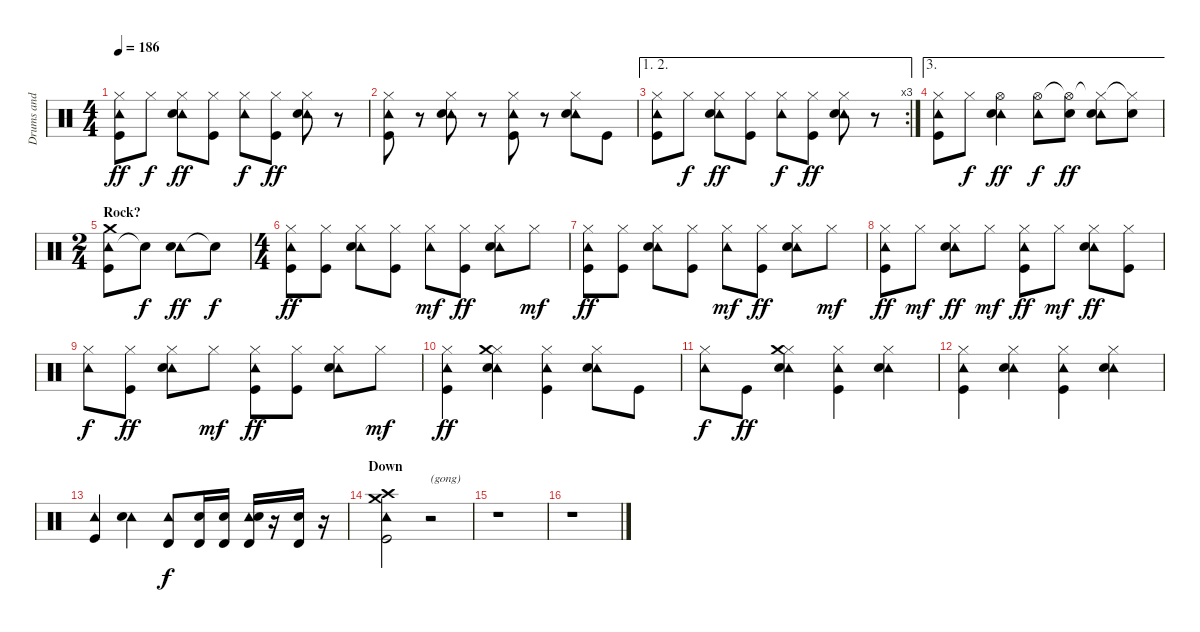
\track ("Drums and Percs" "Drums and ") {instrument percussion}
\staff {score}
\articulation defaults
\ts (4 4)
\tempo 186
\clef neutral
\ks c
("Hi-Hat (closed)" "Tambourine (hit)" "Kick (hit)").8{dy ff} "Hi-Hat (closed)".8{dy f} ("Hi-Hat (closed)" "Tambourine (hit)" "Electric Snare (hit)").8{dy ff} ("Hi-Hat (closed)" "Kick (hit)").8 ("Hi-Hat (closed)" "Tambourine (hit)").8{dy f} ("Hi-Hat (closed)" "Kick (hit)").8{dy ff} ("Hi-Hat (closed)" "Tambourine (hit)" "Electric Snare (hit)").8 r.8 |
("Hi-Hat (closed)" "Tambourine (hit)" "Kick (hit)").8 r.8 ("Hi-Hat (closed)" "Tambourine (hit)" "Electric Snare (hit)").8 r.8 ("Hi-Hat (closed)" "Tambourine (hit)" "Kick (hit)").8 r.8 ("Hi-Hat (closed)" "Tambourine (hit)" "Electric Snare (hit)").8 "Kick (hit)".8 |
\ae (1 2)
\rc 3
("Hi-Hat (closed)" "Tambourine (hit)" "Kick (hit)").8 "Hi-Hat (closed)".8{dy f} ("Hi-Hat (closed)" "Tambourine (hit)" "Electric Snare (hit)").8{dy ff} ("Hi-Hat (closed)" "Kick (hit)").8 ("Hi-Hat (closed)" "Tambourine (hit)").8{dy f} ("Hi-Hat (closed)" "Kick (hit)").8{dy ff} ("Hi-Hat (closed)" "Tambourine (hit)" "Electric Snare (hit)").8 r.8 |
\ae 3
("Hi-Hat (closed)" "Tambourine (hit)" "Kick (hit)").8 "Hi-Hat (closed)".8{dy f} ("Hi-Hat (open)" "Tambourine (hit)" "Electric Snare (hit)").4{dy ff} ("Hi-Hat (open)" "Tambourine (hit)").8{dy f} ("Hi-Hat (open)"{t} "Electric Snare (hit)").8{dy ff} ("Hi-Hat (closed)"{t} "Tambourine (hit)" "Electric Snare (hit)").8 ("Hi-Hat (closed)"{t} "Electric Snare (hit)").8 |
\ts (2 4)
\section ("" "Rock?")
("Tambourine (hit)" "Crash medium (hit)" "Kick (hit)").8 "Snare (hit)"{t}.8{dy f} ("Tambourine (hit)" "Electric Snare (hit)").8{dy ff} "Snare (hit)"{t}.8{dy f} |
\ts (4 4)
("Hi-Hat (closed)" "Tambourine (hit)" "Kick (hit)").8{dy ff} ("Hi-Hat (closed)" "Kick (hit)").8 ("Hi-Hat (closed)" "Tambourine (hit)" "Electric Snare (hit)").8 ("Hi-Hat (closed)" "Kick (hit)").8 ("Hi-Hat (closed)" "Tambourine (hit)").8{dy mf} ("Hi-Hat (closed)" "Kick (hit)").8{dy ff} ("Hi-Hat (closed)" "Tambourine (hit)" "Electric Snare (hit)").8 "Hi-Hat (closed)".8{dy mf} |
("Hi-Hat (closed)" "Tambourine (hit)" "Kick (hit)").8{dy ff} ("Hi-Hat (closed)" "Kick (hit)").8 ("Hi-Hat (closed)" "Tambourine (hit)" "Electric Snare (hit)").8 ("Hi-Hat (closed)" "Kick (hit)").8 ("Hi-Hat (closed)" "Tambourine (hit)").8{dy mf} ("Hi-Hat (closed)" "Kick (hit)").8{dy ff} ("Hi-Hat (closed)" "Tambourine (hit)" "Electric Snare (hit)").8 "Hi-Hat (closed)".8{dy mf} |
("Hi-Hat (closed)" "Tambourine (hit)" "Kick (hit)").8{dy ff} "Hi-Hat (closed)".8{dy mf} ("Hi-Hat (closed)" "Tambourine (hit)" "Electric Snare (hit)").8{dy ff} "Hi-Hat (closed)".8{dy mf} ("Hi-Hat (closed)" "Tambourine (hit)" "Kick (hit)").8{dy ff} "Hi-Hat (closed)".8{dy mf} ("Hi-Hat (closed)" "Tambourine (hit)" "Electric Snare (hit)").8{dy ff} ("Hi-Hat (closed)" "Kick (hit)").8 |
("Hi-Hat (closed)" "Tambourine (hit)").8{dy f} ("Hi-Hat (closed)" "Kick (hit)").8{dy ff} ("Hi-Hat (closed)" "Tambourine (hit)" "Electric Snare (hit)").8 "Hi-Hat (closed)".8{dy mf} ("Hi-Hat (closed)" "Tambourine (hit)" "Kick (hit)").8{dy ff} ("Hi-Hat (closed)" "Kick (hit)").8 ("Hi-Hat (closed)" "Tambourine (hit)" "Electric Snare (hit)").8 "Hi-Hat (closed)".8{dy mf} |
("Hi-Hat (closed)" "Tambourine (hit)" "Kick (hit)").4{dy ff} ("Hi-Hat (closed)" "Tambourine (hit)" "Crash medium (hit)" "Electric Snare (hit)").4 ("Hi-Hat (closed)" "Tambourine (hit)" "Kick (hit)").4 ("Hi-Hat (closed)" "Tambourine (hit)" "Electric Snare (hit)").8 "Kick (hit)".8 |
("Hi-Hat (closed)" "Tambourine (hit)").8{dy f} "Kick (hit)".8{dy ff} ("Hi-Hat (closed)" "Tambourine (hit)" "Crash medium (hit)" "Electric Snare (hit)").4 ("Hi-Hat (closed)" "Tambourine (hit)" "Kick (hit)").4 ("Hi-Hat (closed)" "Tambourine (hit)" "Electric Snare (hit)").4 |
("Hi-Hat (closed)" "Tambourine (hit)" "Kick (hit)").4 ("Hi-Hat (closed)" "Tambourine (hit)" "Electric Snare (hit)").4 ("Hi-Hat (closed)" "Tambourine (hit)" "Kick (hit)").4 ("Hi-Hat (closed)" "Tambourine (hit)" "Electric Snare (hit)").4 |
("Tambourine (hit)" "Kick (hit)").4 ("Tambourine (hit)" "Electric Snare (hit)").4 ("Tambourine (hit)" "Timbale high (hit)").8{dy f} ("Timbale high (hit)" "Electric Snare (hit)").16 ("Timbale high (hit)" "Electric Snare (hit)").16 ("Tambourine (hit)" "Timbale high (hit)" "Electric Snare (hit)").16 r.16 ("Timbale high (hit)" "Electric Snare (hit)").16 r.16 |
\section ("" "Down")
("Tambourine (hit)" "Crash medium (hit)" "Crash high (hit)" "Kick (hit)").2 r.2{txt "(gong)"} |
r.1 |
r.1
